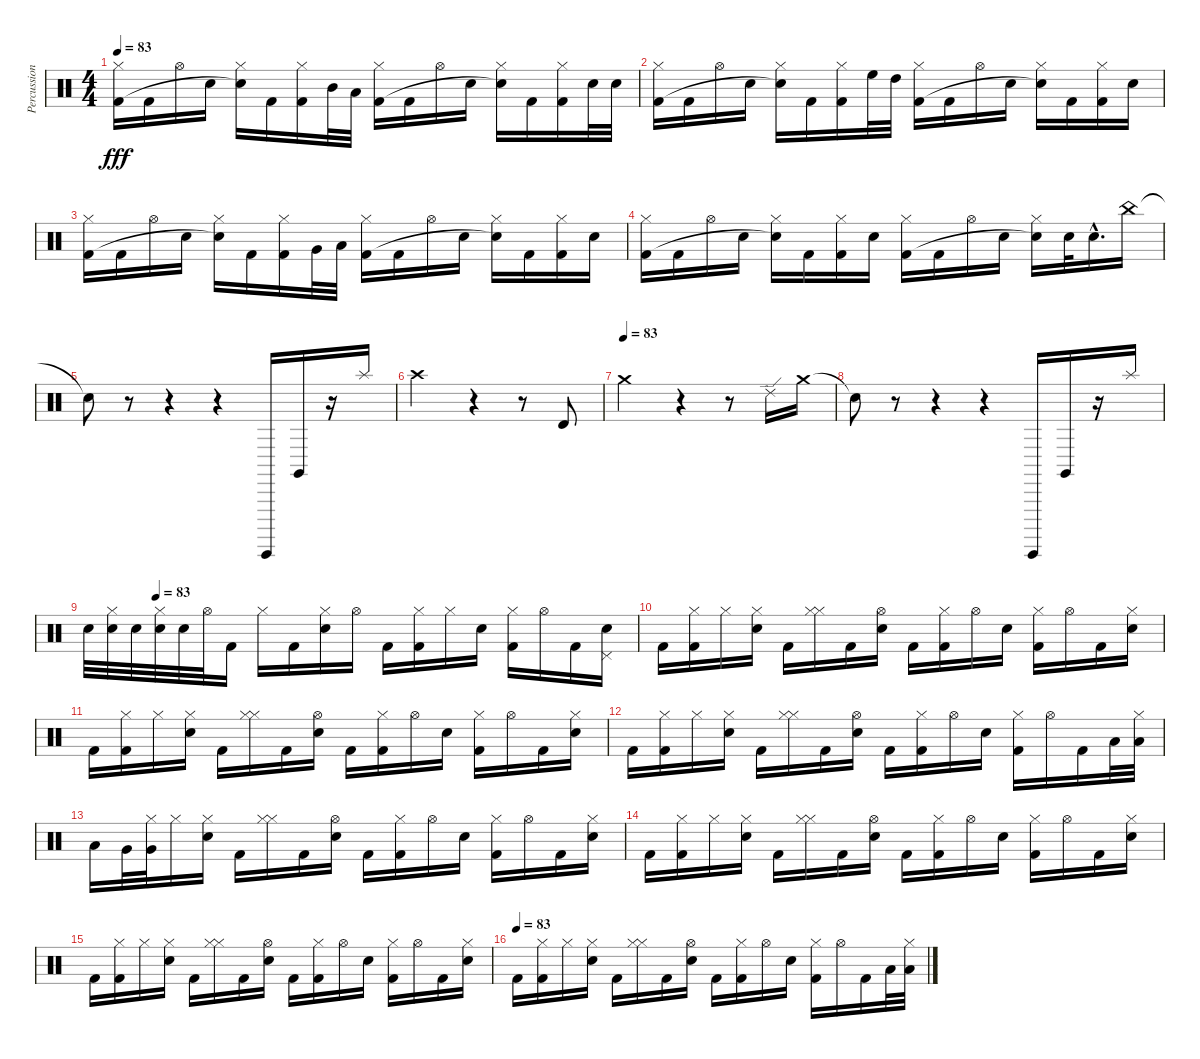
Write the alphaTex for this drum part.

\track ("Percussion" "Percussion") {instrument percussion}
\staff {score}
\articulation defaults
\ts (4 4)
\tempo 83
\clef neutral
\ks c
("Hi-Hat (closed)" "Kick (hit) 2").16{dy fff} "Kick (hit) 2".16 "Hi-Hat (open)".16 "Snare (hit) 2".16 ("Hi-Hat (closed)" "Snare (hit)"{t}).16 "Kick (hit) 2".16 ("Hi-Hat (closed)" "Kick (hit) 2").16 "Mid Tom (hit)".32 "Low Tom (hit)".32 ("Hi-Hat (closed)" "Kick (hit) 2").16 "Kick (hit) 2".16 "Hi-Hat (open)".16 "Snare (hit) 2".16 ("Hi-Hat (closed)" "Snare (hit)"{t}).16 "Kick (hit) 2".16 ("Hi-Hat (closed)" "Kick (hit) 2").16 "Snare (hit) 2".32 "Snare (hit) 2".32 |
("Hi-Hat (closed)" "Kick (hit) 2").16 "Kick (hit) 2".16 "Hi-Hat (open)".16 "Snare (hit) 2".16 ("Hi-Hat (closed)" "Snare (hit)"{t}).16 "Kick (hit) 2".16 ("Hi-Hat (closed)" "Kick (hit) 2").16 "High Floor Tom (hit)".32 "High Tom (hit)".32 ("Hi-Hat (closed)" "Kick (hit) 2").16 "Kick (hit) 2".16 "Hi-Hat (open)".16 "Snare (hit) 2".16 ("Hi-Hat (closed)" "Snare (hit)"{t}).16 "Kick (hit) 2".16 ("Hi-Hat (closed)" "Kick (hit) 2").16 "Snare (hit) 2".16 |
("Hi-Hat (closed)" "Kick (hit) 2").16 "Kick (hit) 2".16 "Hi-Hat (open)".16 "Snare (hit) 2".16 ("Hi-Hat (closed)" "Snare (hit)"{t}).16 "Kick (hit) 2".16 ("Hi-Hat (closed)" "Kick (hit) 2").16 "Very Low Tom (hit)".32 "Low Floor Tom (hit)".32 ("Hi-Hat (closed)" "Kick (hit) 2").16 "Kick (hit) 2".16 "Hi-Hat (open)".16 "Snare (hit) 2".16 ("Hi-Hat (closed)" "Snare (hit)"{t}).16 "Kick (hit) 2".16 ("Hi-Hat (closed)" "Kick (hit) 2").16 "Snare (hit) 2".16 |
("Hi-Hat (closed)" "Kick (hit) 2").16 "Kick (hit) 2".16 "Hi-Hat (open)".16 "Snare (hit) 2".16 ("Hi-Hat (closed)" "Snare (hit)"{t}).16 "Kick (hit) 2".16 ("Hi-Hat (closed)" "Kick (hit) 2").16 "Snare (hit) 2".16 ("Hi-Hat (closed)" "Kick (hit) 2").16 "Kick (hit) 2".16 "Hi-Hat (open)".16 "Snare (hit) 2".16 ("Hi-Hat (closed)" "Snare (hit)"{t}).16 "Snare (hit) 2".32 "Snare (hit) 2"{hac}.16{d} "China (hit)".16 |
"Snare (hit)"{t}.8 r.8 r.4 r.4 "Guiro (hit)".16 "Claves (hit)".16 r.16 "Splash (hit)".16 |
"Crash high (hit)".2 r.4 r.8 "Timbale high (hit)".8 |
\tempo (83)
"Crash medium (hit)".2 r.4 r.8 "Ride (edge) 2".16 "Crash medium (hit)".16 |
"Snare (hit)"{t}.8 r.8 r.4 r.4 "Guiro (hit)".16 "Claves (hit)".16 r.16 "Splash (hit)".16 |
\tempo (83 0.125)
"Snare (hit) 2".32 ("Hi-Hat (closed)" "Snare (hit) 2").32 "Snare (hit) 2".32 ("Hi-Hat (closed)" "Snare (hit) 2").32 "Snare (hit) 2".32 "Hi-Hat (open)".32 "Kick (hit) 2".16 "Hi-Hat (closed)".16 "Kick (hit) 2".16 ("Hi-Hat (closed)" "Snare (hit) 2").16 "Hi-Hat (open)".16 "Kick (hit) 2".16 ("Hi-Hat (closed)" "Kick (hit) 2").16 "Hi-Hat (closed)".16 "Snare (hit) 2".16 ("Hi-Hat (closed)" "Kick (hit) 2").16 "Hi-Hat (open)".16 "Kick (hit) 2".16 ("Pedal Hi-Hat (hit)" "Snare (hit) 2").16 |
"Kick (hit) 2".16 ("Hi-Hat (closed)" "Kick (hit) 2").16 "Hi-Hat (closed)".16 ("Hi-Hat (closed)" "Snare (hit) 2").16 "Kick (hit) 2".16 ("Hi-Hat (closed)" "Hi-Hat (closed)").16 "Kick (hit) 2".16 ("Hi-Hat (open)" "Snare (hit) 2").16 "Kick (hit) 2".16 ("Hi-Hat (closed)" "Kick (hit) 2").16 "Hi-Hat (open)".16 "Snare (hit) 2".16 ("Hi-Hat (closed)" "Kick (hit) 2").16 "Hi-Hat (open)".16 "Kick (hit) 2".16 ("Hi-Hat (closed)" "Snare (hit) 2").16 |
"Kick (hit) 2".16 ("Hi-Hat (closed)" "Kick (hit) 2").16 "Hi-Hat (closed)".16 ("Hi-Hat (closed)" "Snare (hit) 2").16 "Kick (hit) 2".16 ("Hi-Hat (closed)" "Hi-Hat (closed)").16 "Kick (hit) 2".16 ("Hi-Hat (open)" "Snare (hit) 2").16 "Kick (hit) 2".16 ("Hi-Hat (closed)" "Kick (hit) 2").16 "Hi-Hat (open)".16 "Snare (hit) 2".16 ("Hi-Hat (closed)" "Kick (hit) 2").16 "Hi-Hat (open)".16 "Kick (hit) 2".16 ("Hi-Hat (closed)" "Snare (hit) 2").16 |
"Kick (hit) 2".16 ("Hi-Hat (closed)" "Kick (hit) 2").16 "Hi-Hat (closed)".16 ("Hi-Hat (closed)" "Snare (hit) 2").16 "Kick (hit) 2".16 ("Hi-Hat (closed)" "Hi-Hat (closed)").16 "Kick (hit) 2".16 ("Hi-Hat (open)" "Snare (hit) 2").16 "Kick (hit) 2".16 ("Hi-Hat (closed)" "Kick (hit) 2").16 "Hi-Hat (open)".16 "Snare (hit) 2".16 ("Hi-Hat (closed)" "Kick (hit) 2").16 "Hi-Hat (open)".16 "Kick (hit) 2".16 "Low Tom (hit)".32 ("Hi-Hat (closed)" "Low Tom (hit)").32 |
"Low Floor Tom (hit)".16 "Very Low Tom (hit)".32 ("Hi-Hat (closed)" "Very Low Tom (hit)").32 "Hi-Hat (closed)".16 ("Hi-Hat (closed)" "Snare (hit) 2").16 "Kick (hit) 2".16 ("Hi-Hat (closed)" "Hi-Hat (closed)").16 "Kick (hit) 2".16 ("Hi-Hat (open)" "Snare (hit) 2").16 "Kick (hit) 2".16 ("Hi-Hat (closed)" "Kick (hit) 2").16 "Hi-Hat (open)".16 "Snare (hit) 2".16 ("Hi-Hat (closed)" "Kick (hit) 2").16 "Hi-Hat (open)".16 "Kick (hit) 2".16 ("Hi-Hat (closed)" "Snare (hit) 2").16 |
"Kick (hit) 2".16 ("Hi-Hat (closed)" "Kick (hit) 2").16 "Hi-Hat (closed)".16 ("Hi-Hat (closed)" "Snare (hit) 2").16 "Kick (hit) 2".16 ("Hi-Hat (closed)" "Hi-Hat (closed)").16 "Kick (hit) 2".16 ("Hi-Hat (open)" "Snare (hit) 2").16 "Kick (hit) 2".16 ("Hi-Hat (closed)" "Kick (hit) 2").16 "Hi-Hat (open)".16 "Snare (hit) 2".16 ("Hi-Hat (closed)" "Kick (hit) 2").16 "Hi-Hat (open)".16 "Kick (hit) 2".16 ("Hi-Hat (closed)" "Snare (hit) 2").16 |
"Kick (hit) 2".16 ("Hi-Hat (closed)" "Kick (hit) 2").16 "Hi-Hat (closed)".16 ("Hi-Hat (closed)" "Snare (hit) 2").16 "Kick (hit) 2".16 ("Hi-Hat (closed)" "Hi-Hat (closed)").16 "Kick (hit) 2".16 ("Hi-Hat (open)" "Snare (hit) 2").16 "Kick (hit) 2".16 ("Hi-Hat (closed)" "Kick (hit) 2").16 "Hi-Hat (open)".16 "Snare (hit) 2".16 ("Hi-Hat (closed)" "Kick (hit) 2").16 "Hi-Hat (open)".16 "Kick (hit) 2".16 ("Hi-Hat (closed)" "Snare (hit) 2").16 |
\tempo (83)
"Kick (hit) 2".16 ("Hi-Hat (closed)" "Kick (hit) 2").16 "Hi-Hat (closed)".16 ("Hi-Hat (closed)" "Snare (hit) 2").16 "Kick (hit) 2".16 ("Hi-Hat (closed)" "Hi-Hat (closed)").16 "Kick (hit) 2".16 ("Hi-Hat (open)" "Snare (hit) 2").16 "Kick (hit) 2".16 ("Hi-Hat (closed)" "Kick (hit) 2").16 "Hi-Hat (open)".16 "Snare (hit) 2".16 ("Hi-Hat (closed)" "Kick (hit) 2").16 "Hi-Hat (open)".16 "Kick (hit) 2".16 "Low Tom (hit)".32 ("Hi-Hat (closed)" "Low Tom (hit)").32
